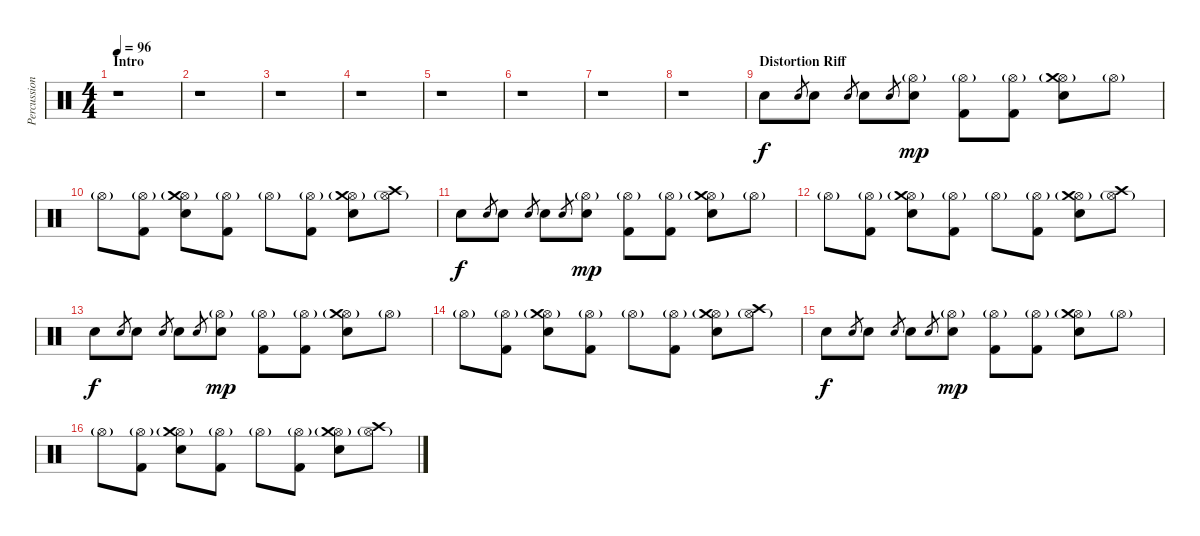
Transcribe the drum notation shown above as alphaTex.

\track ("Percussion" "Percussion") {instrument percussion}
\staff {score}
\articulation defaults
\ts (4 4)
\section ("" "Intro")
\tempo 96
\clef neutral
\ks c
r.1{dy f} |
r.1 |
r.1 |
r.1 |
r.1 |
r.1 |
r.1 |
r.1 |
\section ("" "Distortion Riff")
"Electric Snare (hit)".8 "Electric Snare (hit)".8{gr} "Electric Snare (hit)".8 "Electric Snare (hit)".8{gr} "Electric Snare (hit)".8 "Electric Snare (hit)".8{gr} ("Hi-Hat (open)"{g} "Electric Snare (hit)").8{dy mp} ("Hi-Hat (open)"{g} "Kick (hit) 2").8 ("Hi-Hat (open)"{g} "Kick (hit) 2").8 ("Hi-Hat (open)"{g} "Crash medium (hit)" "Electric Snare (hit)").8 "Hi-Hat (open)"{g}.8 |
"Hi-Hat (open)"{g}.8 ("Hi-Hat (open)"{g} "Kick (hit) 2").8 ("Hi-Hat (open)"{g} "Crash medium (hit)" "Electric Snare (hit)").8 ("Hi-Hat (open)"{g} "Kick (hit) 2").8 "Hi-Hat (open)"{g}.8 ("Hi-Hat (open)"{g} "Kick (hit) 2").8 ("Hi-Hat (open)"{g} "Crash medium (hit)" "Electric Snare (hit)").8 ("Hi-Hat (open)"{g} "Crash high (hit)").8 |
"Electric Snare (hit)".8{dy f} "Electric Snare (hit)".8{gr} "Electric Snare (hit)".8 "Electric Snare (hit)".8{gr} "Electric Snare (hit)".8 "Electric Snare (hit)".8{gr} ("Hi-Hat (open)"{g} "Electric Snare (hit)").8{dy mp} ("Hi-Hat (open)"{g} "Kick (hit) 2").8 ("Hi-Hat (open)"{g} "Kick (hit) 2").8 ("Hi-Hat (open)"{g} "Crash medium (hit)" "Electric Snare (hit)").8 "Hi-Hat (open)"{g}.8 |
"Hi-Hat (open)"{g}.8 ("Hi-Hat (open)"{g} "Kick (hit) 2").8 ("Hi-Hat (open)"{g} "Crash medium (hit)" "Electric Snare (hit)").8 ("Hi-Hat (open)"{g} "Kick (hit) 2").8 "Hi-Hat (open)"{g}.8 ("Hi-Hat (open)"{g} "Kick (hit) 2").8 ("Hi-Hat (open)"{g} "Crash medium (hit)" "Electric Snare (hit)").8 ("Hi-Hat (open)"{g} "Crash high (hit)").8 |
"Electric Snare (hit)".8{dy f} "Electric Snare (hit)".8{gr} "Electric Snare (hit)".8 "Electric Snare (hit)".8{gr} "Electric Snare (hit)".8 "Electric Snare (hit)".8{gr} ("Hi-Hat (open)"{g} "Electric Snare (hit)").8{dy mp} ("Hi-Hat (open)"{g} "Kick (hit) 2").8 ("Hi-Hat (open)"{g} "Kick (hit) 2").8 ("Hi-Hat (open)"{g} "Crash medium (hit)" "Electric Snare (hit)").8 "Hi-Hat (open)"{g}.8 |
"Hi-Hat (open)"{g}.8 ("Hi-Hat (open)"{g} "Kick (hit) 2").8 ("Hi-Hat (open)"{g} "Crash medium (hit)" "Electric Snare (hit)").8 ("Hi-Hat (open)"{g} "Kick (hit) 2").8 "Hi-Hat (open)"{g}.8 ("Hi-Hat (open)"{g} "Kick (hit) 2").8 ("Hi-Hat (open)"{g} "Crash medium (hit)" "Electric Snare (hit)").8 ("Hi-Hat (open)"{g} "Crash high (hit)").8 |
"Electric Snare (hit)".8{dy f} "Electric Snare (hit)".8{gr} "Electric Snare (hit)".8 "Electric Snare (hit)".8{gr} "Electric Snare (hit)".8 "Electric Snare (hit)".8{gr} ("Hi-Hat (open)"{g} "Electric Snare (hit)").8{dy mp} ("Hi-Hat (open)"{g} "Kick (hit) 2").8 ("Hi-Hat (open)"{g} "Kick (hit) 2").8 ("Hi-Hat (open)"{g} "Crash medium (hit)" "Electric Snare (hit)").8 "Hi-Hat (open)"{g}.8 |
"Hi-Hat (open)"{g}.8 ("Hi-Hat (open)"{g} "Kick (hit) 2").8 ("Hi-Hat (open)"{g} "Crash medium (hit)" "Electric Snare (hit)").8 ("Hi-Hat (open)"{g} "Kick (hit) 2").8 "Hi-Hat (open)"{g}.8 ("Hi-Hat (open)"{g} "Kick (hit) 2").8 ("Hi-Hat (open)"{g} "Crash medium (hit)" "Electric Snare (hit)").8 ("Hi-Hat (open)"{g} "Crash high (hit)").8
